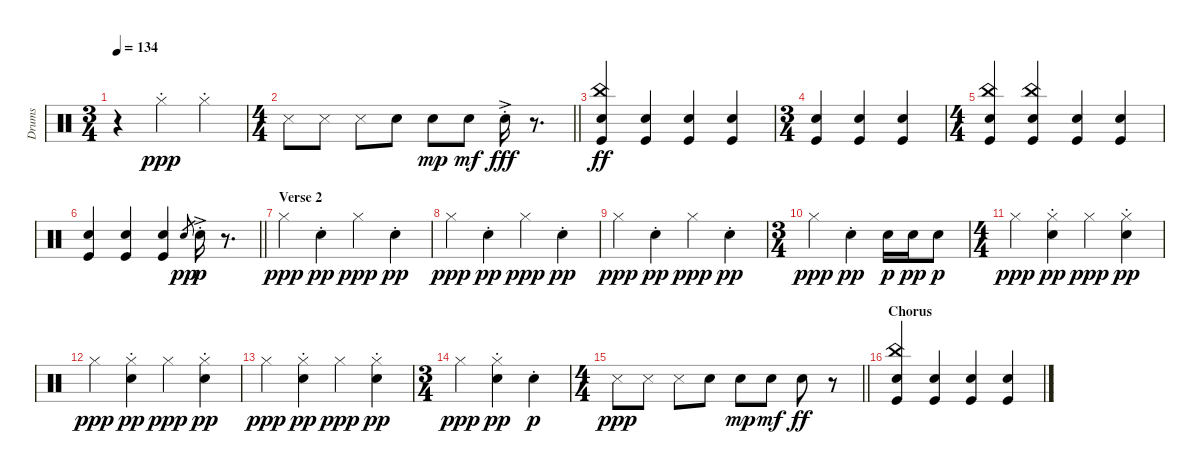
\track ("Drums" "Drums") {instrument percussion}
\staff {score}
\articulation defaults
\ts (3 4)
\tempo 134
\clef neutral
\ks c
r.4{dy ppp} "Hi-Hat (closed)"{st}.4 "Hi-Hat (closed)"{st}.4 |
\ts (4 4)
\barLineRight lightlight "Snare (side stick) 3".8 "Snare (side stick) 3".8 "Snare (side stick) 3".8 "Snare (hit) 2".8 "Snare (hit) 2".8{dy mp} "Snare (hit) 2".8{dy mf} "Snare (hit) 2"{ac st}.16{dy fff}
r.8{d} |
\section ("" "")
("China (hit)" "Snare (hit) 2" "Kick (hit)").4{dy ff} ("Snare (hit) 2" "Kick (hit)").4 ("Snare (hit) 2" "Kick (hit)").4 ("Snare (hit) 2" "Kick (hit)").4 |
\ts (3 4)
("Snare (hit) 2" "Kick (hit)").4 ("Snare (hit) 2" "Kick (hit)").4 ("Snare (hit) 2" "Kick (hit)").4 |
\ts (4 4)
("China (hit)" "Snare (hit) 2" "Kick (hit)").4 ("China (hit)" "Snare (hit) 2" "Kick (hit)").4 ("Snare (hit) 2" "Kick (hit)").4 ("Snare (hit) 2" "Kick (hit)").4 |
\barLineRight lightlight
("Snare (hit) 2" "Kick (hit)").4 ("Snare (hit) 2" "Kick (hit)").4 ("Snare (hit) 2" "Kick (hit)").4 "Snare (hit) 2".8{gr dy pp} "Snare (hit) 2"{ac st}.16{dy p} r.8{d} |
\section ("" "Verse 2")
"Hi-Hat (closed)".4{dy ppp} "Snare (hit) 2"{st}.4{dy pp} "Hi-Hat (closed)".4{dy ppp} "Snare (hit) 2"{st}.4{dy pp} |
"Hi-Hat (closed)".4{dy ppp} "Snare (hit) 2"{st}.4{dy pp} "Hi-Hat (closed)".4{dy ppp} "Snare (hit) 2"{st}.4{dy pp} |
"Hi-Hat (closed)".4{dy ppp} "Snare (hit) 2"{st}.4{dy pp} "Hi-Hat (closed)".4{dy ppp} "Snare (hit) 2"{st}.4{dy pp} |
\ts (3 4)
"Hi-Hat (closed)".4{dy ppp} "Snare (hit) 2"{st}.4{dy pp} "Snare (hit) 2".16{dy p} "Snare (hit) 2".16{dy pp} "Snare (hit) 2".8{dy p} |
\ts (4 4)
"Hi-Hat (closed)".4{dy ppp} ("Hi-Hat (closed)" "Snare (hit) 2"{st}).4{dy pp} "Hi-Hat (closed)".4{dy ppp} ("Hi-Hat (closed)" "Snare (hit) 2"{st}).4{dy pp} |
"Hi-Hat (closed)".4{dy ppp} ("Hi-Hat (closed)" "Snare (hit) 2"{st}).4{dy pp} "Hi-Hat (closed)".4{dy ppp} ("Hi-Hat (closed)" "Snare (hit) 2"{st}).4{dy pp} |
"Hi-Hat (closed)".4{dy ppp} ("Hi-Hat (closed)" "Snare (hit) 2"{st}).4{dy pp} "Hi-Hat (closed)".4{dy ppp} ("Hi-Hat (closed)" "Snare (hit) 2"{st}).4{dy pp} |
\ts (3 4)
"Hi-Hat (closed)".4{dy ppp} ("Hi-Hat (closed)" "Snare (hit) 2"{st}).4{dy pp} "Snare (hit) 2"{st}.4{dy p} |
\ts (4 4)
\barLineRight lightlight "Snare (side stick) 3".8{dy ppp} "Snare (side stick) 3".8 "Snare (side stick) 3".8 "Snare (hit) 2".8 "Snare (hit) 2".8{dy mp} "Snare (hit) 2".8{dy mf} "Snare (hit) 2".8{dy ff}
r.8 |
\section ("" "Chorus")
("China (hit)" "Snare (hit) 2" "Kick (hit)").4 ("Snare (hit) 2" "Kick (hit)").4 ("Snare (hit) 2" "Kick (hit)").4 ("Snare (hit) 2" "Kick (hit)").4
